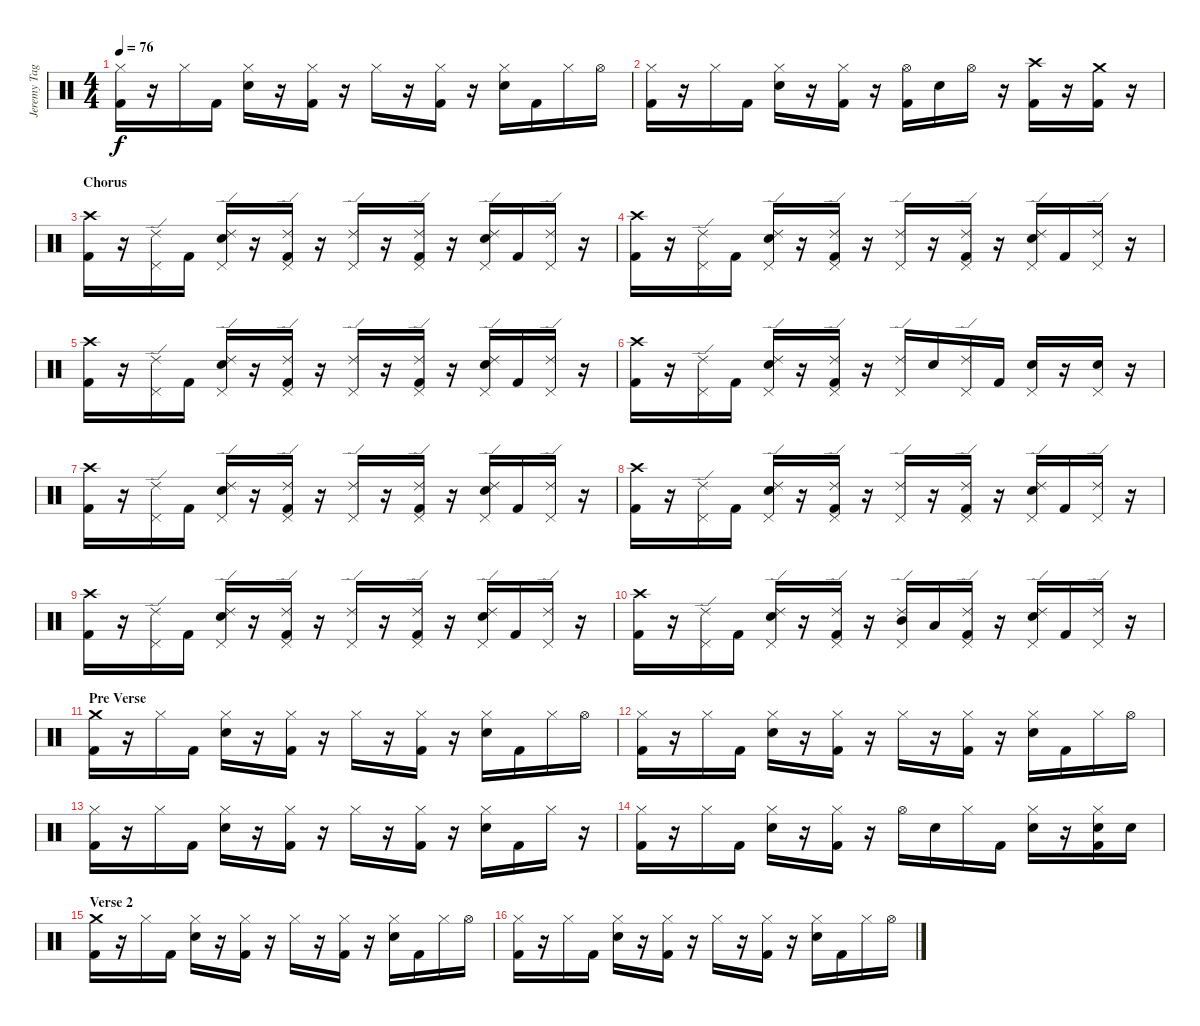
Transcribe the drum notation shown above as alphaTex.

\track ("Jeremy Taggart(Drums)" "Jeremy Tag") {instrument percussion}
\staff {score}
\articulation defaults
\ts (4 4)
\tempo 76
\clef neutral
\ks c
("Hi-Hat (closed)" "Kick (hit) 2").16{dy f} r.16 "Hi-Hat (closed)".16 "Kick (hit) 2".16 ("Hi-Hat (closed)" "Snare (hit) 2").16 r.16 ("Hi-Hat (closed)" "Kick (hit) 2").16 r.16 "Hi-Hat (closed)".16 r.16 ("Hi-Hat (closed)" "Kick (hit) 2").16 r.16 ("Hi-Hat (closed)" "Snare (hit) 2").16 "Kick (hit) 2".16 "Hi-Hat (closed)".16 "Hi-Hat (open)".16 |
("Hi-Hat (closed)" "Kick (hit) 2").16 r.16 "Hi-Hat (closed)".16 "Kick (hit) 2".16 ("Hi-Hat (closed)" "Snare (hit) 2").16 r.16 ("Hi-Hat (closed)" "Kick (hit) 2").16 r.16 ("Hi-Hat (open)" "Kick (hit) 2").16 "Snare (hit) 2".16 "Hi-Hat (open)".16 r.16 ("Crash high (hit)" "Kick (hit) 2").16 r.16 ("Crash medium (hit)" "Kick (hit) 2").16 r.16 |
\section ("" "Chorus")
("Crash high (hit)" "Kick (hit) 2").16 r.16 ("Ride (edge) 2" "Pedal Hi-Hat (hit)").16 "Kick (hit) 2".16 ("Ride (edge) 2" "Snare (hit) 2" "Pedal Hi-Hat (hit)").16 r.16 ("Ride (edge) 2" "Pedal Hi-Hat (hit)" "Kick (hit) 2").16 r.16 ("Ride (edge) 2" "Pedal Hi-Hat (hit)").16 r.16 ("Ride (edge) 2" "Pedal Hi-Hat (hit)" "Kick (hit) 2").16 r.16 ("Ride (edge) 2" "Snare (hit) 2" "Pedal Hi-Hat (hit)").16 "Kick (hit) 2".16 ("Ride (edge) 2" "Pedal Hi-Hat (hit)").16 r.16 |
("Crash high (hit)" "Kick (hit) 2").16 r.16 ("Ride (edge) 2" "Pedal Hi-Hat (hit)").16 "Kick (hit) 2".16 ("Ride (edge) 2" "Snare (hit) 2" "Pedal Hi-Hat (hit)").16 r.16 ("Ride (edge) 2" "Pedal Hi-Hat (hit)" "Kick (hit) 2").16 r.16 ("Ride (edge) 2" "Pedal Hi-Hat (hit)").16 r.16 ("Ride (edge) 2" "Pedal Hi-Hat (hit)" "Kick (hit) 2").16 r.16 ("Ride (edge) 2" "Snare (hit) 2" "Pedal Hi-Hat (hit)").16 "Kick (hit) 2".16 ("Ride (edge) 2" "Pedal Hi-Hat (hit)").16 r.16 |
("Crash high (hit)" "Kick (hit) 2").16 r.16 ("Ride (edge) 2" "Pedal Hi-Hat (hit)").16 "Kick (hit) 2".16 ("Ride (edge) 2" "Snare (hit) 2" "Pedal Hi-Hat (hit)").16 r.16 ("Ride (edge) 2" "Pedal Hi-Hat (hit)" "Kick (hit) 2").16 r.16 ("Ride (edge) 2" "Pedal Hi-Hat (hit)").16 r.16 ("Ride (edge) 2" "Pedal Hi-Hat (hit)" "Kick (hit) 2").16 r.16 ("Ride (edge) 2" "Snare (hit) 2" "Pedal Hi-Hat (hit)").16 "Kick (hit) 2".16 ("Ride (edge) 2" "Pedal Hi-Hat (hit)").16 r.16 |
("Crash high (hit)" "Kick (hit) 2").16 r.16 ("Ride (edge) 2" "Pedal Hi-Hat (hit)").16 "Kick (hit) 2".16 ("Ride (edge) 2" "Snare (hit) 2" "Pedal Hi-Hat (hit)").16 r.16 ("Ride (edge) 2" "Pedal Hi-Hat (hit)" "Kick (hit) 2").16 r.16 ("Ride (edge) 2" "Pedal Hi-Hat (hit)").16 "Snare (hit) 2".16 ("Ride (edge) 2" "Pedal Hi-Hat (hit)").16 "Kick (hit) 2".16 ("Pedal Hi-Hat (hit)" "Snare (hit) 2").16 r.16 ("Pedal Hi-Hat (hit)" "Snare (hit) 2").16 r.16 |
("Crash high (hit)" "Kick (hit) 2").16 r.16 ("Ride (edge) 2" "Pedal Hi-Hat (hit)").16 "Kick (hit) 2".16 ("Ride (edge) 2" "Snare (hit) 2" "Pedal Hi-Hat (hit)").16 r.16 ("Ride (edge) 2" "Pedal Hi-Hat (hit)" "Kick (hit) 2").16 r.16 ("Ride (edge) 2" "Pedal Hi-Hat (hit)").16 r.16 ("Ride (edge) 2" "Pedal Hi-Hat (hit)" "Kick (hit) 2").16 r.16 ("Ride (edge) 2" "Snare (hit) 2" "Pedal Hi-Hat (hit)").16 "Kick (hit) 2".16 ("Ride (edge) 2" "Pedal Hi-Hat (hit)").16 r.16 |
("Crash high (hit)" "Kick (hit) 2").16 r.16 ("Ride (edge) 2" "Pedal Hi-Hat (hit)").16 "Kick (hit) 2".16 ("Ride (edge) 2" "Snare (hit) 2" "Pedal Hi-Hat (hit)").16 r.16 ("Ride (edge) 2" "Pedal Hi-Hat (hit)" "Kick (hit) 2").16 r.16 ("Ride (edge) 2" "Pedal Hi-Hat (hit)").16 r.16 ("Ride (edge) 2" "Pedal Hi-Hat (hit)" "Kick (hit) 2").16 r.16 ("Ride (edge) 2" "Snare (hit) 2" "Pedal Hi-Hat (hit)").16 "Kick (hit) 2".16 ("Ride (edge) 2" "Pedal Hi-Hat (hit)").16 r.16 |
("Crash high (hit)" "Kick (hit) 2").16 r.16 ("Ride (edge) 2" "Pedal Hi-Hat (hit)").16 "Kick (hit) 2".16 ("Ride (edge) 2" "Snare (hit) 2" "Pedal Hi-Hat (hit)").16 r.16 ("Ride (edge) 2" "Pedal Hi-Hat (hit)" "Kick (hit) 2").16 r.16 ("Ride (edge) 2" "Pedal Hi-Hat (hit)").16 r.16 ("Ride (edge) 2" "Pedal Hi-Hat (hit)" "Kick (hit) 2").16 r.16 ("Ride (edge) 2" "Snare (hit) 2" "Pedal Hi-Hat (hit)").16 "Kick (hit) 2".16 ("Ride (edge) 2" "Pedal Hi-Hat (hit)").16 r.16 |
("Crash high (hit)" "Kick (hit) 2").16 r.16 ("Ride (edge) 2" "Pedal Hi-Hat (hit)").16 "Kick (hit) 2".16 ("Ride (edge) 2" "Snare (hit) 2" "Pedal Hi-Hat (hit)").16 r.16 ("Ride (edge) 2" "Pedal Hi-Hat (hit)" "Kick (hit) 2").16 r.16 ("Ride (edge) 2" "Mid Tom (hit)" "Pedal Hi-Hat (hit)").16 "Low Tom (hit)".16 ("Ride (edge) 2" "Pedal Hi-Hat (hit)" "Kick (hit) 2").16 r.16 ("Ride (edge) 2" "Snare (hit) 2" "Pedal Hi-Hat (hit)").16 "Kick (hit) 2".16 ("Ride (edge) 2" "Pedal Hi-Hat (hit)").16 r.16 |
\section ("" "Pre Verse")
("Crash medium (hit)" "Kick (hit) 2").16 r.16 "Hi-Hat (closed)".16 "Kick (hit) 2".16 ("Hi-Hat (closed)" "Snare (hit) 2").16 r.16 ("Hi-Hat (closed)" "Kick (hit) 2").16 r.16 "Hi-Hat (closed)".16 r.16 ("Hi-Hat (closed)" "Kick (hit) 2").16 r.16 ("Hi-Hat (closed)" "Snare (hit) 2").16 "Kick (hit) 2".16 "Hi-Hat (closed)".16 "Hi-Hat (open)".16 |
("Hi-Hat (closed)" "Kick (hit) 2").16 r.16 "Hi-Hat (closed)".16 "Kick (hit) 2".16 ("Hi-Hat (closed)" "Snare (hit) 2").16 r.16 ("Hi-Hat (closed)" "Kick (hit) 2").16 r.16 "Hi-Hat (closed)".16 r.16 ("Hi-Hat (closed)" "Kick (hit) 2").16 r.16 ("Hi-Hat (closed)" "Snare (hit) 2").16 "Kick (hit) 2".16 "Hi-Hat (closed)".16 "Hi-Hat (open)".16 |
("Hi-Hat (closed)" "Kick (hit) 2").16 r.16 "Hi-Hat (closed)".16 "Kick (hit) 2".16 ("Hi-Hat (closed)" "Snare (hit) 2").16 r.16 ("Hi-Hat (closed)" "Kick (hit) 2").16 r.16 "Hi-Hat (closed)".16 r.16 ("Hi-Hat (closed)" "Kick (hit) 2").16 r.16 ("Hi-Hat (closed)" "Snare (hit) 2").16 "Kick (hit) 2".16 "Hi-Hat (closed)".16 r.16 |
("Hi-Hat (closed)" "Kick (hit) 2").16 r.16 "Hi-Hat (closed)".16 "Kick (hit) 2".16 ("Hi-Hat (closed)" "Snare (hit) 2").16 r.16 ("Hi-Hat (closed)" "Kick (hit) 2").16 r.16 "Hi-Hat (open)".16 "Snare (hit) 2".16 "Hi-Hat (closed)".16 "Kick (hit) 2".16 ("Hi-Hat (closed)" "Snare (hit) 2").16 r.16 ("Hi-Hat (closed)" "Snare (hit) 2" "Kick (hit) 2").16 "Snare (hit) 2".16 |
\section ("" "Verse 2")
("Crash medium (hit)" "Kick (hit) 2").16 r.16 "Hi-Hat (closed)".16 "Kick (hit) 2".16 ("Hi-Hat (closed)" "Snare (hit) 2").16 r.16 ("Hi-Hat (closed)" "Kick (hit) 2").16 r.16 "Hi-Hat (closed)".16 r.16 ("Hi-Hat (closed)" "Kick (hit) 2").16 r.16 ("Hi-Hat (closed)" "Snare (hit) 2").16 "Kick (hit) 2".16 "Hi-Hat (closed)".16 "Hi-Hat (open)".16 |
("Hi-Hat (closed)" "Kick (hit) 2").16 r.16 "Hi-Hat (closed)".16 "Kick (hit) 2".16 ("Hi-Hat (closed)" "Snare (hit) 2").16 r.16 ("Hi-Hat (closed)" "Kick (hit) 2").16 r.16 "Hi-Hat (closed)".16 r.16 ("Hi-Hat (closed)" "Kick (hit) 2").16 r.16 ("Hi-Hat (closed)" "Snare (hit) 2").16 "Kick (hit) 2".16 "Hi-Hat (closed)".16 "Hi-Hat (open)".16
